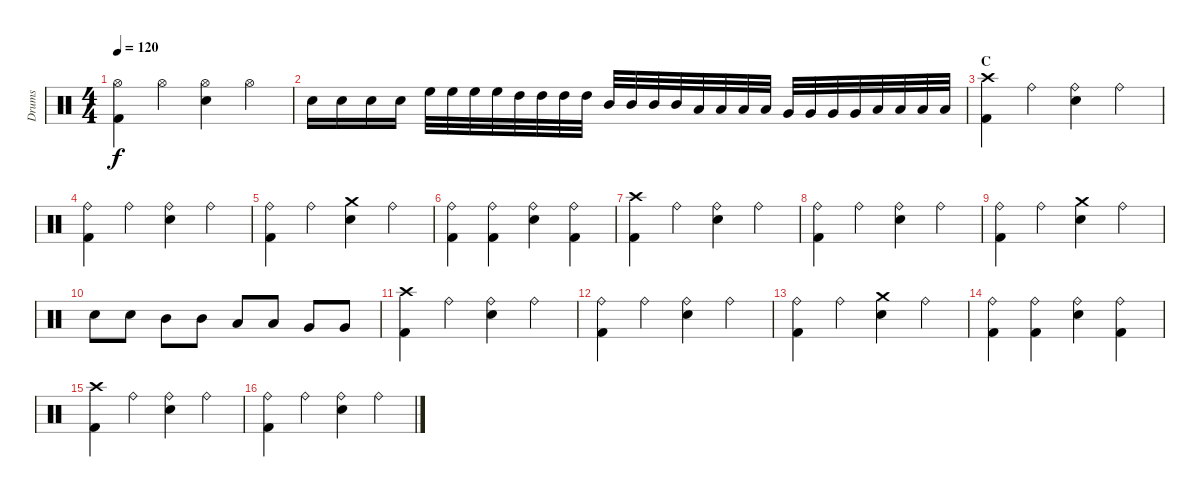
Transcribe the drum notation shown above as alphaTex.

\track ("Drums" "Drums") {instrument percussion}
\staff {score}
\articulation defaults
\ts (4 4)
\tempo 120
\clef neutral
\ks c
("Hi-Hat (open)" "Kick (hit) 2").4{dy f} "Hi-Hat (open)".4 ("Hi-Hat (open)" "Snare (hit) 2").4 "Hi-Hat (open)".4 |
"Snare (hit) 2".16 "Snare (hit) 2".16 "Snare (hit) 2".16 "Snare (hit) 2".16 "High Floor Tom (hit)".32 "High Floor Tom (hit)".32 "High Floor Tom (hit)".32 "High Floor Tom (hit)".32 "High Tom (hit)".32 "High Tom (hit)".32 "High Tom (hit)".32 "High Tom (hit)".32 "Mid Tom (hit)".32 "Mid Tom (hit)".32 "Mid Tom (hit)".32 "Mid Tom (hit)".32 "Low Tom (hit)".32 "Low Tom (hit)".32 "Low Tom (hit)".32 "Low Tom (hit)".32 "Very Low Tom (hit)".32 "Very Low Tom (hit)".32 "Very Low Tom (hit)".32 "Very Low Tom (hit)".32 "Low Floor Tom (hit)".32 "Low Floor Tom (hit)".32 "Low Floor Tom (hit)".32 "Low Floor Tom (hit)".32 |
\section ("" "C")
("Crash high (hit)" "Kick (hit) 2").4 "Ride (bell)".4 ("Ride (bell)" "Snare (hit) 2").4 "Ride (bell)".4 |
("Ride (bell)" "Kick (hit) 2").4 "Ride (bell)".4 ("Ride (bell)" "Snare (hit) 2").4 "Ride (bell)".4 |
("Ride (bell)" "Kick (hit) 2").4 "Ride (bell)".4 ("Crash medium (hit)" "Snare (hit) 2").4 "Ride (bell)".4 |
("Ride (bell)" "Kick (hit) 2").4 ("Ride (bell)" "Kick (hit) 2").4 ("Ride (bell)" "Snare (hit) 2").4 ("Ride (bell)" "Kick (hit) 2").4 |
("Crash high (hit)" "Kick (hit) 2").4 "Ride (bell)".4 ("Ride (bell)" "Snare (hit) 2").4 "Ride (bell)".4 |
("Ride (bell)" "Kick (hit) 2").4 "Ride (bell)".4 ("Ride (bell)" "Snare (hit) 2").4 "Ride (bell)".4 |
("Ride (bell)" "Kick (hit) 2").4 "Ride (bell)".4 ("Crash medium (hit)" "Snare (hit) 2").4 "Ride (bell)".4 |
"Snare (hit) 2".8 "Snare (hit) 2".8 "Mid Tom (hit)".8 "Mid Tom (hit)".8 "Low Tom (hit)".8 "Low Tom (hit)".8 "Very Low Tom (hit)".8 "Very Low Tom (hit)".8 |
("Crash high (hit)" "Kick (hit) 2").4 "Ride (bell)".4 ("Ride (bell)" "Snare (hit) 2").4 "Ride (bell)".4 |
("Ride (bell)" "Kick (hit) 2").4 "Ride (bell)".4 ("Ride (bell)" "Snare (hit) 2").4 "Ride (bell)".4 |
("Ride (bell)" "Kick (hit) 2").4 "Ride (bell)".4 ("Crash medium (hit)" "Snare (hit) 2").4 "Ride (bell)".4 |
("Ride (bell)" "Kick (hit) 2").4 ("Ride (bell)" "Kick (hit) 2").4 ("Ride (bell)" "Snare (hit) 2").4 ("Ride (bell)" "Kick (hit) 2").4 |
("Crash high (hit)" "Kick (hit) 2").4 "Ride (bell)".4 ("Ride (bell)" "Snare (hit) 2").4 "Ride (bell)".4 |
("Ride (bell)" "Kick (hit) 2").4 "Ride (bell)".4 ("Ride (bell)" "Snare (hit) 2").4 "Ride (bell)".4
